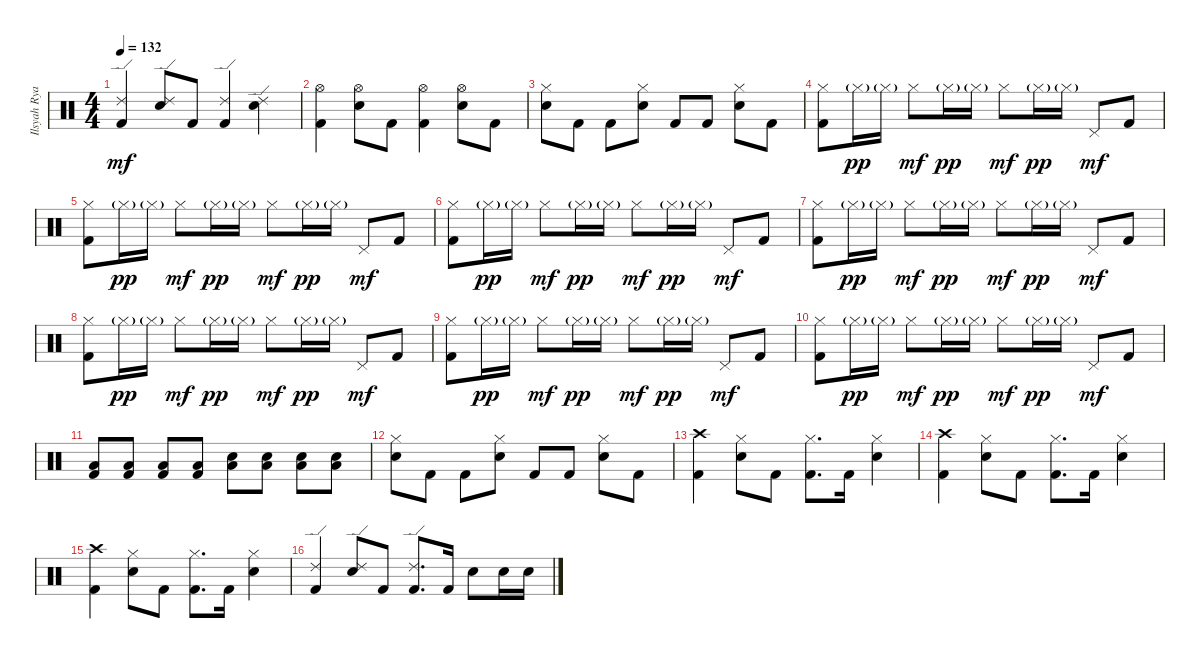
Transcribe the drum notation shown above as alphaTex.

\track ("Ilsyah Ryan Reza (drum)" "Ilsyah Rya") {instrument percussion}
\staff {score}
\articulation defaults
\ts (4 4)
\tempo 132
\clef neutral
\ks c
("Ride (edge) 2" "Kick (hit) 2").4{dy mf} ("Ride (edge) 2" "Electric Snare (hit)").8 "Kick (hit) 2".8 ("Ride (edge) 2" "Kick (hit) 2").4 ("Ride (edge) 2" "Electric Snare (hit)").4 |
("Hi-Hat (open)" "Kick (hit) 2").4 ("Hi-Hat (open)" "Electric Snare (hit)").8 "Kick (hit) 2".8 ("Hi-Hat (open)" "Kick (hit) 2").4 ("Hi-Hat (open)" "Electric Snare (hit)").8 "Kick (hit) 2".8 |
("Hi-Hat (closed)" "Electric Snare (hit)").8 "Kick (hit) 2".8 "Kick (hit) 2".8 ("Hi-Hat (closed)" "Electric Snare (hit)").8 "Kick (hit) 2".8 "Kick (hit) 2".8 ("Hi-Hat (closed)" "Electric Snare (hit)").8 "Kick (hit) 2".8 |
("Hi-Hat (closed)" "Kick (hit) 2").8 "Hi-Hat (closed)"{g}.16{dy pp} "Hi-Hat (closed)"{g}.16 "Hi-Hat (closed)".8{dy mf} "Hi-Hat (closed)"{g}.16{dy pp} "Hi-Hat (closed)"{g}.16 "Hi-Hat (closed)".8{dy mf} "Hi-Hat (closed)"{g}.16{dy pp} "Hi-Hat (closed)"{g}.16 "Pedal Hi-Hat (hit)".8{dy mf} "Kick (hit) 2".8 |
("Hi-Hat (closed)" "Kick (hit) 2").8 "Hi-Hat (closed)"{g}.16{dy pp} "Hi-Hat (closed)"{g}.16 "Hi-Hat (closed)".8{dy mf} "Hi-Hat (closed)"{g}.16{dy pp} "Hi-Hat (closed)"{g}.16 "Hi-Hat (closed)".8{dy mf} "Hi-Hat (closed)"{g}.16{dy pp} "Hi-Hat (closed)"{g}.16 "Pedal Hi-Hat (hit)".8{dy mf} "Kick (hit) 2".8 |
("Hi-Hat (closed)" "Kick (hit) 2").8 "Hi-Hat (closed)"{g}.16{dy pp} "Hi-Hat (closed)"{g}.16 "Hi-Hat (closed)".8{dy mf} "Hi-Hat (closed)"{g}.16{dy pp} "Hi-Hat (closed)"{g}.16 "Hi-Hat (closed)".8{dy mf} "Hi-Hat (closed)"{g}.16{dy pp} "Hi-Hat (closed)"{g}.16 "Pedal Hi-Hat (hit)".8{dy mf} "Kick (hit) 2".8 |
("Hi-Hat (closed)" "Kick (hit) 2").8 "Hi-Hat (closed)"{g}.16{dy pp} "Hi-Hat (closed)"{g}.16 "Hi-Hat (closed)".8{dy mf} "Hi-Hat (closed)"{g}.16{dy pp} "Hi-Hat (closed)"{g}.16 "Hi-Hat (closed)".8{dy mf} "Hi-Hat (closed)"{g}.16{dy pp} "Hi-Hat (closed)"{g}.16 "Pedal Hi-Hat (hit)".8{dy mf} "Kick (hit) 2".8 |
("Hi-Hat (closed)" "Kick (hit) 2").8 "Hi-Hat (closed)"{g}.16{dy pp} "Hi-Hat (closed)"{g}.16 "Hi-Hat (closed)".8{dy mf} "Hi-Hat (closed)"{g}.16{dy pp} "Hi-Hat (closed)"{g}.16 "Hi-Hat (closed)".8{dy mf} "Hi-Hat (closed)"{g}.16{dy pp} "Hi-Hat (closed)"{g}.16 "Pedal Hi-Hat (hit)".8{dy mf} "Kick (hit) 2".8 |
("Hi-Hat (closed)" "Kick (hit) 2").8 "Hi-Hat (closed)"{g}.16{dy pp} "Hi-Hat (closed)"{g}.16 "Hi-Hat (closed)".8{dy mf} "Hi-Hat (closed)"{g}.16{dy pp} "Hi-Hat (closed)"{g}.16 "Hi-Hat (closed)".8{dy mf} "Hi-Hat (closed)"{g}.16{dy pp} "Hi-Hat (closed)"{g}.16 "Pedal Hi-Hat (hit)".8{dy mf} "Kick (hit) 2".8 |
("Hi-Hat (closed)" "Kick (hit) 2").8 "Hi-Hat (closed)"{g}.16{dy pp} "Hi-Hat (closed)"{g}.16 "Hi-Hat (closed)".8{dy mf} "Hi-Hat (closed)"{g}.16{dy pp} "Hi-Hat (closed)"{g}.16 "Hi-Hat (closed)".8{dy mf} "Hi-Hat (closed)"{g}.16{dy pp} "Hi-Hat (closed)"{g}.16 "Pedal Hi-Hat (hit)".8{dy mf} "Kick (hit) 2".8 |
("Low Floor Tom (hit)" "Kick (hit) 2").8 ("Low Floor Tom (hit)" "Kick (hit) 2").8 ("Low Floor Tom (hit)" "Kick (hit) 2").8 ("Low Floor Tom (hit)" "Kick (hit) 2").8 ("Low Floor Tom (hit)" "Electric Snare (hit)").8 ("Low Floor Tom (hit)" "Electric Snare (hit)").8 ("Low Floor Tom (hit)" "Electric Snare (hit)").8 ("Low Floor Tom (hit)" "Electric Snare (hit)").8 |
("Hi-Hat (closed)" "Electric Snare (hit)").8 "Kick (hit) 2".8 "Kick (hit) 2".8 ("Hi-Hat (closed)" "Electric Snare (hit)").8 "Kick (hit) 2".8 "Kick (hit) 2".8 ("Hi-Hat (closed)" "Electric Snare (hit)").8 "Kick (hit) 2".8 |
("Crash high (hit)" "Kick (hit) 2").4 ("Hi-Hat (closed)" "Electric Snare (hit)").8 "Kick (hit) 2".8 ("Hi-Hat (closed)" "Kick (hit) 2").8{d} "Kick (hit) 2".16 ("Hi-Hat (closed)" "Electric Snare (hit)").4 |
("Crash high (hit)" "Kick (hit) 2").4 ("Hi-Hat (closed)" "Electric Snare (hit)").8 "Kick (hit) 2".8 ("Hi-Hat (closed)" "Kick (hit) 2").8{d} "Kick (hit) 2".16 ("Hi-Hat (closed)" "Electric Snare (hit)").4 |
("Crash high (hit)" "Kick (hit) 2").4 ("Hi-Hat (closed)" "Electric Snare (hit)").8 "Kick (hit) 2".8 ("Hi-Hat (closed)" "Kick (hit) 2").8{d} "Kick (hit) 2".16 ("Hi-Hat (closed)" "Electric Snare (hit)").4 |
("Ride (edge) 2" "Kick (hit) 2").4 ("Ride (edge) 2" "Electric Snare (hit)").8 "Kick (hit) 2".8 ("Ride (edge) 2" "Kick (hit) 2").8{d} "Kick (hit) 2".16 "Electric Snare (hit)".8 "Electric Snare (hit)".16 "Electric Snare (hit)".16
